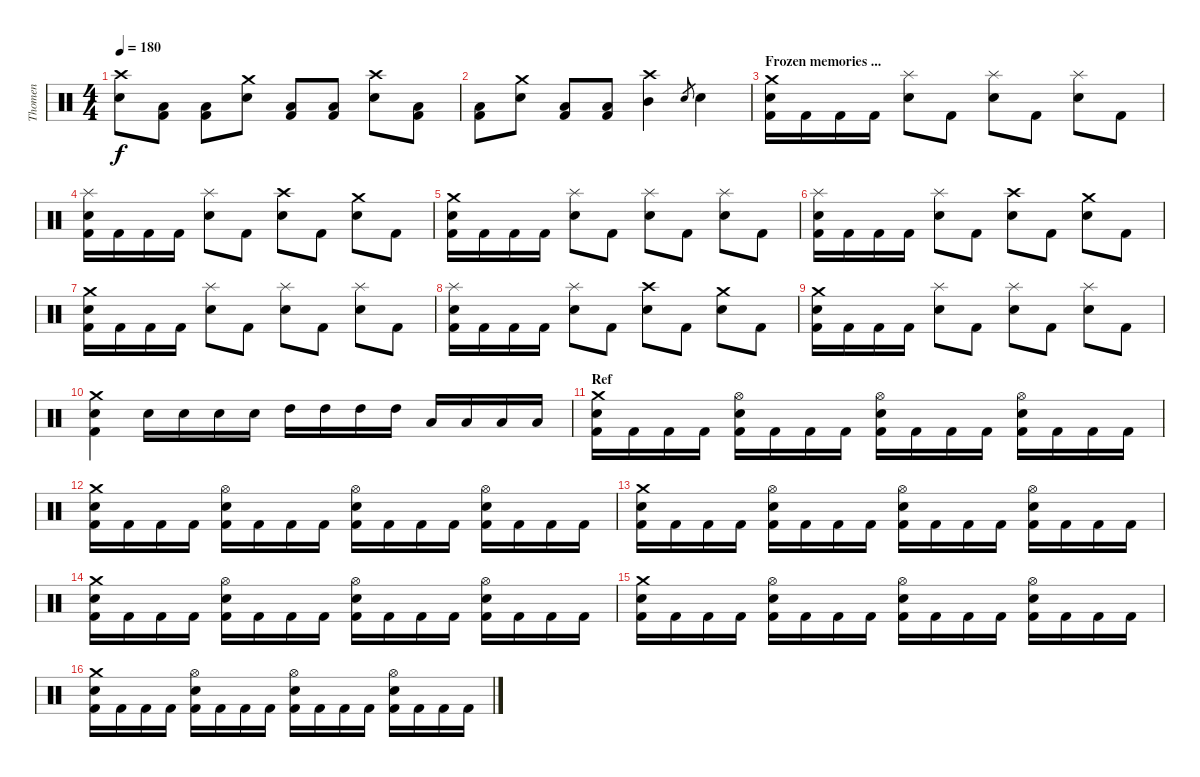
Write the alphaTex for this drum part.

\track ("Thomen" "Thomen") {instrument percussion}
\staff {score}
\articulation defaults
\ts (4 4)
\tempo 180
\clef neutral
\ks c
("Electric Snare (hit)" "Crash high (hit)").8{dy f} ("Kick (hit) 2" "Low Tom (hit)").8 ("Kick (hit) 2" "Low Tom (hit)").8 ("Electric Snare (hit)" "Crash medium (hit)").8 ("Kick (hit) 2" "Low Tom (hit)").8 ("Kick (hit) 2" "Low Tom (hit)").8 ("Electric Snare (hit)" "Crash high (hit)").8 ("Kick (hit) 2" "Low Tom (hit)").8 |
("Kick (hit) 2" "Low Tom (hit)").8 ("Electric Snare (hit)" "Crash medium (hit)").8 ("Kick (hit) 2" "Low Tom (hit)").8 ("Kick (hit) 2" "Low Tom (hit)").8 ("Mid Tom (hit)" "Crash high (hit)").4 "Electric Snare (hit)".8{gr} "Electric Snare (hit)".4 |
\section ("" "Frozen memories ...")
("Kick (hit) 2" "Electric Snare (hit)" "Crash medium (hit)").16 "Kick (hit) 2".16 "Kick (hit) 2".16 "Kick (hit) 2".16 ("Electric Snare (hit)" "Splash (hit)").8 "Kick (hit) 2".8 ("Electric Snare (hit)" "Splash (hit)").8 "Kick (hit) 2".8 ("Electric Snare (hit)" "Splash (hit)").8 "Kick (hit) 2".8 |
("Kick (hit) 2" "Electric Snare (hit)" "Splash (hit)").16 "Kick (hit) 2".16 "Kick (hit) 2".16 "Kick (hit) 2".16 ("Electric Snare (hit)" "Splash (hit)").8 "Kick (hit) 2".8 ("Electric Snare (hit)" "Crash high (hit)").8 "Kick (hit) 2".8 ("Electric Snare (hit)" "Crash medium (hit)").8 "Kick (hit) 2".8 |
("Kick (hit) 2" "Electric Snare (hit)" "Crash medium (hit)").16 "Kick (hit) 2".16 "Kick (hit) 2".16 "Kick (hit) 2".16 ("Electric Snare (hit)" "Splash (hit)").8 "Kick (hit) 2".8 ("Electric Snare (hit)" "Splash (hit)").8 "Kick (hit) 2".8 ("Electric Snare (hit)" "Splash (hit)").8 "Kick (hit) 2".8 |
("Kick (hit) 2" "Electric Snare (hit)" "Splash (hit)").16 "Kick (hit) 2".16 "Kick (hit) 2".16 "Kick (hit) 2".16 ("Electric Snare (hit)" "Splash (hit)").8 "Kick (hit) 2".8 ("Electric Snare (hit)" "Crash high (hit)").8 "Kick (hit) 2".8 ("Electric Snare (hit)" "Crash medium (hit)").8 "Kick (hit) 2".8 |
("Kick (hit) 2" "Electric Snare (hit)" "Crash medium (hit)").16 "Kick (hit) 2".16 "Kick (hit) 2".16 "Kick (hit) 2".16 ("Electric Snare (hit)" "Splash (hit)").8 "Kick (hit) 2".8 ("Electric Snare (hit)" "Splash (hit)").8 "Kick (hit) 2".8 ("Electric Snare (hit)" "Splash (hit)").8 "Kick (hit) 2".8 |
("Kick (hit) 2" "Electric Snare (hit)" "Splash (hit)").16 "Kick (hit) 2".16 "Kick (hit) 2".16 "Kick (hit) 2".16 ("Electric Snare (hit)" "Splash (hit)").8 "Kick (hit) 2".8 ("Electric Snare (hit)" "Crash high (hit)").8 "Kick (hit) 2".8 ("Electric Snare (hit)" "Crash medium (hit)").8 "Kick (hit) 2".8 |
("Kick (hit) 2" "Electric Snare (hit)" "Crash medium (hit)").16 "Kick (hit) 2".16 "Kick (hit) 2".16 "Kick (hit) 2".16 ("Electric Snare (hit)" "Splash (hit)").8 "Kick (hit) 2".8 ("Electric Snare (hit)" "Splash (hit)").8 "Kick (hit) 2".8 ("Electric Snare (hit)" "Splash (hit)").8 "Kick (hit) 2".8 |
("Kick (hit) 2" "Electric Snare (hit)" "Crash medium (hit)").4 "Electric Snare (hit)".16 "Electric Snare (hit)".16 "Electric Snare (hit)".16 "Electric Snare (hit)".16 "High Tom (hit)".16 "High Tom (hit)".16 "High Tom (hit)".16 "High Tom (hit)".16 "Low Tom (hit)".16 "Low Tom (hit)".16 "Low Tom (hit)".16 "Low Tom (hit)".16 |
\section ("" "Ref")
("Kick (hit) 2" "Electric Snare (hit)" "Crash medium (hit)").16 "Kick (hit) 2".16 "Kick (hit) 2".16 "Kick (hit) 2".16 ("Kick (hit) 2" "Electric Snare (hit)" "Hi-Hat (open)").16 "Kick (hit) 2".16 "Kick (hit) 2".16 "Kick (hit) 2".16 ("Kick (hit) 2" "Electric Snare (hit)" "Hi-Hat (open)").16 "Kick (hit) 2".16 "Kick (hit) 2".16 "Kick (hit) 2".16 ("Kick (hit) 2" "Electric Snare (hit)" "Hi-Hat (open)").16 "Kick (hit) 2".16 "Kick (hit) 2".16 "Kick (hit) 2".16 |
("Kick (hit) 2" "Electric Snare (hit)" "Crash medium (hit)").16 "Kick (hit) 2".16 "Kick (hit) 2".16 "Kick (hit) 2".16 ("Kick (hit) 2" "Electric Snare (hit)" "Hi-Hat (open)").16 "Kick (hit) 2".16 "Kick (hit) 2".16 "Kick (hit) 2".16 ("Kick (hit) 2" "Electric Snare (hit)" "Hi-Hat (open)").16 "Kick (hit) 2".16 "Kick (hit) 2".16 "Kick (hit) 2".16 ("Kick (hit) 2" "Electric Snare (hit)" "Hi-Hat (open)").16 "Kick (hit) 2".16 "Kick (hit) 2".16 "Kick (hit) 2".16 |
("Kick (hit) 2" "Electric Snare (hit)" "Crash medium (hit)").16 "Kick (hit) 2".16 "Kick (hit) 2".16 "Kick (hit) 2".16 ("Kick (hit) 2" "Electric Snare (hit)" "Hi-Hat (open)").16 "Kick (hit) 2".16 "Kick (hit) 2".16 "Kick (hit) 2".16 ("Kick (hit) 2" "Electric Snare (hit)" "Hi-Hat (open)").16 "Kick (hit) 2".16 "Kick (hit) 2".16 "Kick (hit) 2".16 ("Kick (hit) 2" "Electric Snare (hit)" "Hi-Hat (open)").16 "Kick (hit) 2".16 "Kick (hit) 2".16 "Kick (hit) 2".16 |
("Kick (hit) 2" "Electric Snare (hit)" "Crash medium (hit)").16 "Kick (hit) 2".16 "Kick (hit) 2".16 "Kick (hit) 2".16 ("Kick (hit) 2" "Electric Snare (hit)" "Hi-Hat (open)").16 "Kick (hit) 2".16 "Kick (hit) 2".16 "Kick (hit) 2".16 ("Kick (hit) 2" "Electric Snare (hit)" "Hi-Hat (open)").16 "Kick (hit) 2".16 "Kick (hit) 2".16 "Kick (hit) 2".16 ("Kick (hit) 2" "Electric Snare (hit)" "Hi-Hat (open)").16 "Kick (hit) 2".16 "Kick (hit) 2".16 "Kick (hit) 2".16 |
("Kick (hit) 2" "Electric Snare (hit)" "Crash medium (hit)").16 "Kick (hit) 2".16 "Kick (hit) 2".16 "Kick (hit) 2".16 ("Kick (hit) 2" "Electric Snare (hit)" "Hi-Hat (open)").16 "Kick (hit) 2".16 "Kick (hit) 2".16 "Kick (hit) 2".16 ("Kick (hit) 2" "Electric Snare (hit)" "Hi-Hat (open)").16 "Kick (hit) 2".16 "Kick (hit) 2".16 "Kick (hit) 2".16 ("Kick (hit) 2" "Electric Snare (hit)" "Hi-Hat (open)").16 "Kick (hit) 2".16 "Kick (hit) 2".16 "Kick (hit) 2".16 |
("Kick (hit) 2" "Electric Snare (hit)" "Crash medium (hit)").16 "Kick (hit) 2".16 "Kick (hit) 2".16 "Kick (hit) 2".16 ("Kick (hit) 2" "Electric Snare (hit)" "Hi-Hat (open)").16 "Kick (hit) 2".16 "Kick (hit) 2".16 "Kick (hit) 2".16 ("Kick (hit) 2" "Electric Snare (hit)" "Hi-Hat (open)").16 "Kick (hit) 2".16 "Kick (hit) 2".16 "Kick (hit) 2".16 ("Kick (hit) 2" "Electric Snare (hit)" "Hi-Hat (open)").16 "Kick (hit) 2".16 "Kick (hit) 2".16 "Kick (hit) 2".16
